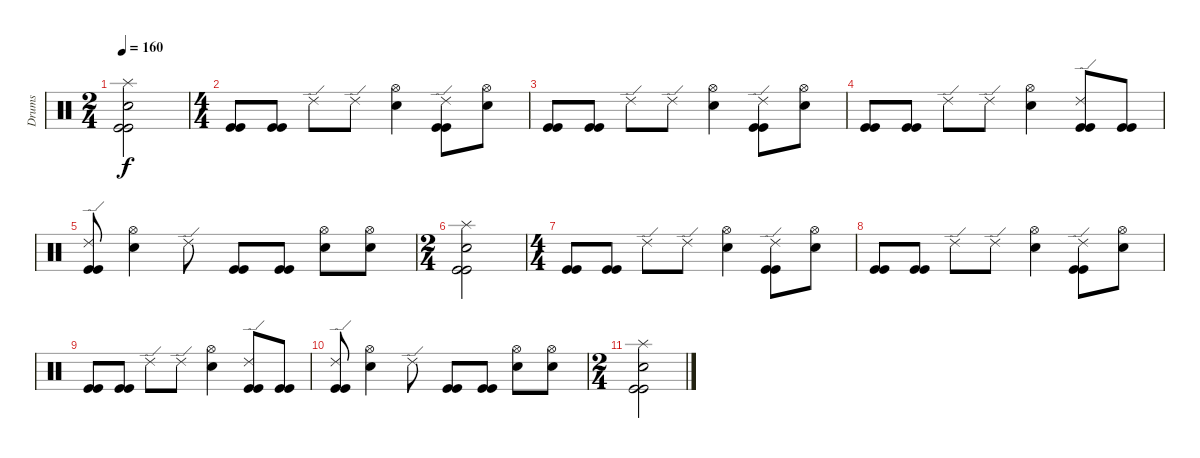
\track ("Drums" "Drums") {instrument percussion}
\staff {score}
\articulation defaults
\ts (2 4)
\tempo 160
\clef neutral
\ks c
("Splash (hit)" "Snare (hit) 2" "Kick (hit)" "Kick (hit)").2{dy f} |
\ts (4 4)
("Kick (hit)" "Kick (hit)").8 ("Kick (hit)" "Kick (hit)").8 "Ride (edge) 2".8 "Ride (edge) 2".8 ("Hi-Hat (open)" "Snare (hit) 2").4 ("Ride (edge) 2" "Kick (hit)" "Kick (hit)").8 ("Hi-Hat (open)" "Snare (hit) 2").8{volume 12} |
("Kick (hit)" "Kick (hit)").8 ("Kick (hit)" "Kick (hit)").8 "Ride (edge) 2".8 "Ride (edge) 2".8 ("Hi-Hat (open)" "Snare (hit) 2").4 ("Ride (edge) 2" "Kick (hit)" "Kick (hit)").8 ("Hi-Hat (open)" "Snare (hit) 2").8 |
("Kick (hit)" "Kick (hit)").8 ("Kick (hit)" "Kick (hit)").8 "Ride (edge) 2".8 "Ride (edge) 2".8 ("Hi-Hat (open)" "Snare (hit) 2").4 ("Ride (edge) 2" "Kick (hit)" "Kick (hit)").8 ("Kick (hit)" "Kick (hit)").8{volume 9} |
("Ride (edge) 2" "Kick (hit)" "Kick (hit)").8 ("Hi-Hat (open)" "Snare (hit) 2").4 "Ride (edge) 2".8 ("Kick (hit)" "Kick (hit)").8 ("Kick (hit)" "Kick (hit)").8 ("Hi-Hat (open)" "Snare (hit) 2").8 ("Hi-Hat (open)" "Snare (hit) 2").8 |
\ts (2 4)
("Splash (hit)" "Snare (hit) 2" "Kick (hit)" "Kick (hit)").2 |
\ts (4 4)
("Kick (hit)" "Kick (hit)").8 ("Kick (hit)" "Kick (hit)").8 "Ride (edge) 2".8 "Ride (edge) 2".8 ("Hi-Hat (open)" "Snare (hit) 2").4{volume 6} ("Ride (edge) 2" "Kick (hit)" "Kick (hit)").8 ("Hi-Hat (open)" "Snare (hit) 2").8 |
("Kick (hit)" "Kick (hit)").8 ("Kick (hit)" "Kick (hit)").8 "Ride (edge) 2".8 "Ride (edge) 2".8 ("Hi-Hat (open)" "Snare (hit) 2").4 ("Ride (edge) 2" "Kick (hit)" "Kick (hit)").8 ("Hi-Hat (open)" "Snare (hit) 2").8 |
("Kick (hit)" "Kick (hit)").8 ("Kick (hit)" "Kick (hit)").8 "Ride (edge) 2".8 "Ride (edge) 2".8 ("Hi-Hat (open)" "Snare (hit) 2").4{volume 0} ("Ride (edge) 2" "Kick (hit)" "Kick (hit)").8 ("Kick (hit)" "Kick (hit)").8 |
("Ride (edge) 2" "Kick (hit)" "Kick (hit)").8 ("Hi-Hat (open)" "Snare (hit) 2").4 "Ride (edge) 2".8 ("Kick (hit)" "Kick (hit)").8 ("Kick (hit)" "Kick (hit)").8 ("Hi-Hat (open)" "Snare (hit) 2").8 ("Hi-Hat (open)" "Snare (hit) 2").8 |
\ts (2 4)
("Splash (hit)" "Snare (hit) 2" "Kick (hit)" "Kick (hit)").2
